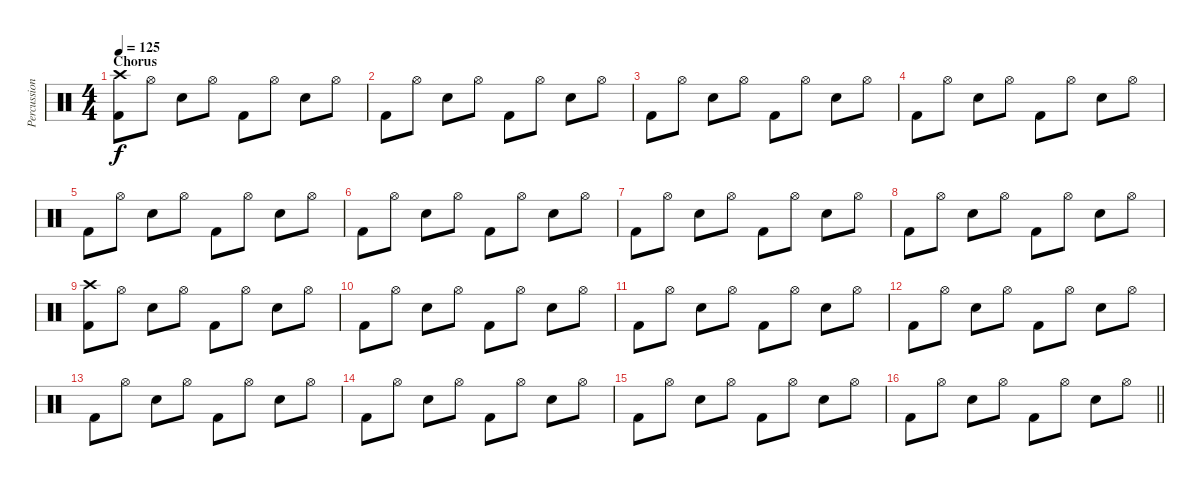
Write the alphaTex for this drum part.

\track ("Percussion" "Percussion") {instrument percussion}
\staff {score}
\articulation defaults
\ts (4 4)
\section ("" "Chorus")
\tempo 125
\clef neutral
\ks c
("Crash high (hit)" "Kick (hit) 2").8{dy f} "Hi-Hat (open)".8 "Snare (hit) 2".8 "Hi-Hat (open)".8 "Kick (hit) 2".8 "Hi-Hat (open)".8 "Snare (hit) 2".8 "Hi-Hat (open)".8 |
"Kick (hit) 2".8 "Hi-Hat (open)".8 "Snare (hit) 2".8 "Hi-Hat (open)".8 "Kick (hit) 2".8 "Hi-Hat (open)".8 "Snare (hit) 2".8 "Hi-Hat (open)".8 |
"Kick (hit) 2".8 "Hi-Hat (open)".8 "Snare (hit) 2".8 "Hi-Hat (open)".8 "Kick (hit) 2".8 "Hi-Hat (open)".8 "Snare (hit) 2".8 "Hi-Hat (open)".8 |
"Kick (hit) 2".8 "Hi-Hat (open)".8 "Snare (hit) 2".8 "Hi-Hat (open)".8 "Kick (hit) 2".8 "Hi-Hat (open)".8 "Snare (hit) 2".8 "Hi-Hat (open)".8 |
"Kick (hit) 2".8 "Hi-Hat (open)".8 "Snare (hit) 2".8 "Hi-Hat (open)".8 "Kick (hit) 2".8 "Hi-Hat (open)".8 "Snare (hit) 2".8 "Hi-Hat (open)".8 |
"Kick (hit) 2".8 "Hi-Hat (open)".8 "Snare (hit) 2".8 "Hi-Hat (open)".8 "Kick (hit) 2".8 "Hi-Hat (open)".8 "Snare (hit) 2".8 "Hi-Hat (open)".8 |
"Kick (hit) 2".8 "Hi-Hat (open)".8 "Snare (hit) 2".8 "Hi-Hat (open)".8 "Kick (hit) 2".8 "Hi-Hat (open)".8 "Snare (hit) 2".8 "Hi-Hat (open)".8 |
"Kick (hit) 2".8 "Hi-Hat (open)".8 "Snare (hit) 2".8 "Hi-Hat (open)".8 "Kick (hit) 2".8 "Hi-Hat (open)".8 "Snare (hit) 2".8 "Hi-Hat (open)".8 |
("Crash high (hit)" "Kick (hit) 2").8 "Hi-Hat (open)".8 "Snare (hit) 2".8 "Hi-Hat (open)".8 "Kick (hit) 2".8 "Hi-Hat (open)".8 "Snare (hit) 2".8 "Hi-Hat (open)".8 |
"Kick (hit) 2".8 "Hi-Hat (open)".8 "Snare (hit) 2".8 "Hi-Hat (open)".8 "Kick (hit) 2".8 "Hi-Hat (open)".8 "Snare (hit) 2".8 "Hi-Hat (open)".8 |
"Kick (hit) 2".8 "Hi-Hat (open)".8 "Snare (hit) 2".8 "Hi-Hat (open)".8 "Kick (hit) 2".8 "Hi-Hat (open)".8 "Snare (hit) 2".8 "Hi-Hat (open)".8 |
"Kick (hit) 2".8 "Hi-Hat (open)".8 "Snare (hit) 2".8 "Hi-Hat (open)".8 "Kick (hit) 2".8 "Hi-Hat (open)".8 "Snare (hit) 2".8 "Hi-Hat (open)".8 |
"Kick (hit) 2".8 "Hi-Hat (open)".8 "Snare (hit) 2".8 "Hi-Hat (open)".8 "Kick (hit) 2".8 "Hi-Hat (open)".8 "Snare (hit) 2".8 "Hi-Hat (open)".8 |
"Kick (hit) 2".8 "Hi-Hat (open)".8 "Snare (hit) 2".8 "Hi-Hat (open)".8 "Kick (hit) 2".8 "Hi-Hat (open)".8 "Snare (hit) 2".8 "Hi-Hat (open)".8 |
"Kick (hit) 2".8 "Hi-Hat (open)".8 "Snare (hit) 2".8 "Hi-Hat (open)".8 "Kick (hit) 2".8 "Hi-Hat (open)".8 "Snare (hit) 2".8 "Hi-Hat (open)".8 |
\barLineRight lightlight "Kick (hit) 2".8 "Hi-Hat (open)".8 "Snare (hit) 2".8 "Hi-Hat (open)".8 "Kick (hit) 2".8 "Hi-Hat (open)".8 "Snare (hit) 2".8 "Hi-Hat (open)".8
